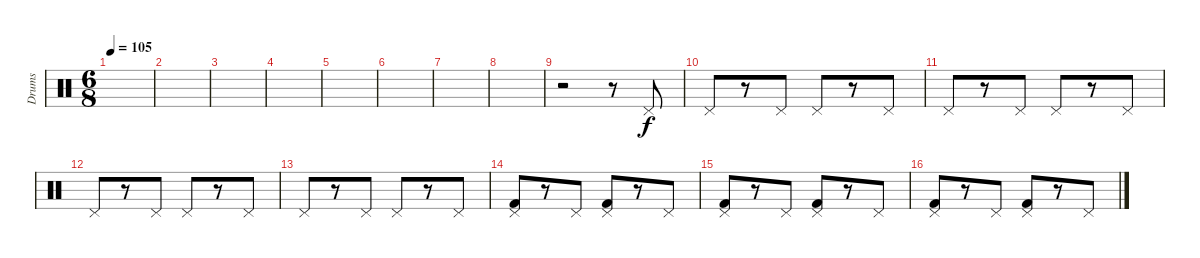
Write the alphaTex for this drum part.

\track ("Drums" "Drums") {instrument percussion}
\staff {score}
\articulation defaults
\ts (6 8)
\tempo 105
\clef neutral
\ks c
|
|
|
|
|
|
|
|
r.2 r.8 "Pedal Hi-Hat (hit)".8 |
"Pedal Hi-Hat (hit)".8 r.8 "Pedal Hi-Hat (hit)".8 "Pedal Hi-Hat (hit)".8 r.8 "Pedal Hi-Hat (hit)".8 |
"Pedal Hi-Hat (hit)".8 r.8 "Pedal Hi-Hat (hit)".8 "Pedal Hi-Hat (hit)".8 r.8 "Pedal Hi-Hat (hit)".8 |
"Pedal Hi-Hat (hit)".8 r.8 "Pedal Hi-Hat (hit)".8 "Pedal Hi-Hat (hit)".8 r.8 "Pedal Hi-Hat (hit)".8 |
"Pedal Hi-Hat (hit)".8 r.8 "Pedal Hi-Hat (hit)".8 "Pedal Hi-Hat (hit)".8 r.8 "Pedal Hi-Hat (hit)".8 |
("Pedal Hi-Hat (hit)" "Kick (hit) 2").8 r.8 "Pedal Hi-Hat (hit)".8 ("Pedal Hi-Hat (hit)" "Kick (hit) 2").8 r.8 "Pedal Hi-Hat (hit)".8 |
("Pedal Hi-Hat (hit)" "Kick (hit) 2").8 r.8 "Pedal Hi-Hat (hit)".8 ("Pedal Hi-Hat (hit)" "Kick (hit) 2").8 r.8 "Pedal Hi-Hat (hit)".8 |
("Pedal Hi-Hat (hit)" "Kick (hit) 2").8 r.8 "Pedal Hi-Hat (hit)".8 ("Pedal Hi-Hat (hit)" "Kick (hit) 2").8 r.8 "Pedal Hi-Hat (hit)".8
